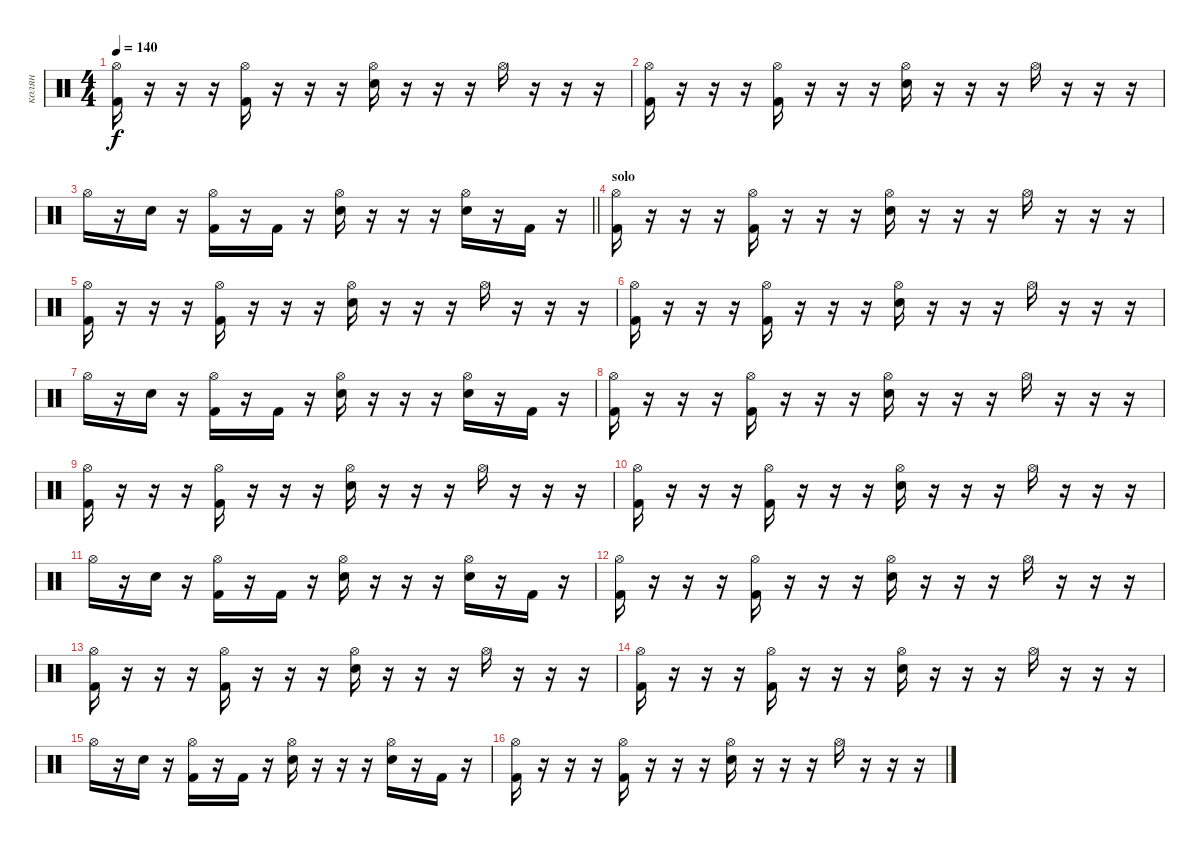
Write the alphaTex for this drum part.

\track ("колян" "колян") {instrument percussion}
\staff {score}
\articulation defaults
\ts (4 4)
\tempo 140
\clef neutral
\ks c
("Kick (hit) 2" "Hi-Hat (open)").16{dy f} r.16 r.16 r.16 ("Kick (hit) 2" "Hi-Hat (open)").16 r.16 r.16 r.16 ("Snare (hit) 2" "Hi-Hat (open)").16 r.16 r.16 r.16 "Hi-Hat (open)".16 r.16 r.16 r.16 |
("Kick (hit) 2" "Hi-Hat (open)").16 r.16 r.16 r.16 ("Kick (hit) 2" "Hi-Hat (open)").16 r.16 r.16 r.16 ("Snare (hit) 2" "Hi-Hat (open)").16 r.16 r.16 r.16 "Hi-Hat (open)".16 r.16 r.16 r.16 |
\barLineRight lightlight "Hi-Hat (open)".16
r.16 "Snare (hit) 2".16 r.16 ("Kick (hit) 2" "Hi-Hat (open)").16 r.16 "Kick (hit) 2".16 r.16 ("Snare (hit) 2" "Hi-Hat (open)").16 r.16 r.16 r.16 ("Snare (hit) 2" "Hi-Hat (open)").16 r.16 "Kick (hit) 2".16 r.16 |
\section ("" "solo")
("Kick (hit) 2" "Hi-Hat (open)").16 r.16 r.16 r.16 ("Kick (hit) 2" "Hi-Hat (open)").16 r.16 r.16 r.16 ("Snare (hit) 2" "Hi-Hat (open)").16 r.16 r.16 r.16 "Hi-Hat (open)".16 r.16 r.16 r.16 |
("Kick (hit) 2" "Hi-Hat (open)").16 r.16 r.16 r.16 ("Kick (hit) 2" "Hi-Hat (open)").16 r.16 r.16 r.16 ("Snare (hit) 2" "Hi-Hat (open)").16 r.16 r.16 r.16 "Hi-Hat (open)".16 r.16 r.16 r.16 |
("Kick (hit) 2" "Hi-Hat (open)").16 r.16 r.16 r.16 ("Kick (hit) 2" "Hi-Hat (open)").16 r.16 r.16 r.16 ("Snare (hit) 2" "Hi-Hat (open)").16 r.16 r.16 r.16 "Hi-Hat (open)".16 r.16 r.16 r.16 |
"Hi-Hat (open)".16 r.16 "Snare (hit) 2".16 r.16 ("Kick (hit) 2" "Hi-Hat (open)").16 r.16 "Kick (hit) 2".16 r.16 ("Snare (hit) 2" "Hi-Hat (open)").16 r.16 r.16 r.16 ("Snare (hit) 2" "Hi-Hat (open)").16 r.16 "Kick (hit) 2".16 r.16 |
("Kick (hit) 2" "Hi-Hat (open)").16 r.16 r.16 r.16 ("Kick (hit) 2" "Hi-Hat (open)").16 r.16 r.16 r.16 ("Snare (hit) 2" "Hi-Hat (open)").16 r.16 r.16 r.16 "Hi-Hat (open)".16 r.16 r.16 r.16 |
("Kick (hit) 2" "Hi-Hat (open)").16 r.16 r.16 r.16 ("Kick (hit) 2" "Hi-Hat (open)").16 r.16 r.16 r.16 ("Snare (hit) 2" "Hi-Hat (open)").16 r.16 r.16 r.16 "Hi-Hat (open)".16 r.16 r.16 r.16 |
("Kick (hit) 2" "Hi-Hat (open)").16 r.16 r.16 r.16 ("Kick (hit) 2" "Hi-Hat (open)").16 r.16 r.16 r.16 ("Snare (hit) 2" "Hi-Hat (open)").16 r.16 r.16 r.16 "Hi-Hat (open)".16 r.16 r.16 r.16 |
"Hi-Hat (open)".16 r.16 "Snare (hit) 2".16 r.16 ("Kick (hit) 2" "Hi-Hat (open)").16 r.16 "Kick (hit) 2".16 r.16 ("Snare (hit) 2" "Hi-Hat (open)").16 r.16 r.16 r.16 ("Snare (hit) 2" "Hi-Hat (open)").16 r.16 "Kick (hit) 2".16 r.16 |
("Kick (hit) 2" "Hi-Hat (open)").16 r.16 r.16 r.16 ("Kick (hit) 2" "Hi-Hat (open)").16 r.16 r.16 r.16 ("Snare (hit) 2" "Hi-Hat (open)").16 r.16 r.16 r.16 "Hi-Hat (open)".16 r.16 r.16 r.16 |
("Kick (hit) 2" "Hi-Hat (open)").16 r.16 r.16 r.16 ("Kick (hit) 2" "Hi-Hat (open)").16 r.16 r.16 r.16 ("Snare (hit) 2" "Hi-Hat (open)").16 r.16 r.16 r.16 "Hi-Hat (open)".16 r.16 r.16 r.16 |
("Kick (hit) 2" "Hi-Hat (open)").16 r.16 r.16 r.16 ("Kick (hit) 2" "Hi-Hat (open)").16 r.16 r.16 r.16 ("Snare (hit) 2" "Hi-Hat (open)").16 r.16 r.16 r.16 "Hi-Hat (open)".16 r.16 r.16 r.16 |
"Hi-Hat (open)".16 r.16 "Snare (hit) 2".16 r.16 ("Kick (hit) 2" "Hi-Hat (open)").16 r.16 "Kick (hit) 2".16 r.16 ("Snare (hit) 2" "Hi-Hat (open)").16 r.16 r.16 r.16 ("Snare (hit) 2" "Hi-Hat (open)").16 r.16 "Kick (hit) 2".16 r.16 |
("Kick (hit) 2" "Hi-Hat (open)").16 r.16 r.16 r.16 ("Kick (hit) 2" "Hi-Hat (open)").16 r.16 r.16 r.16 ("Snare (hit) 2" "Hi-Hat (open)").16 r.16 r.16 r.16 "Hi-Hat (open)".16 r.16 r.16 r.16
